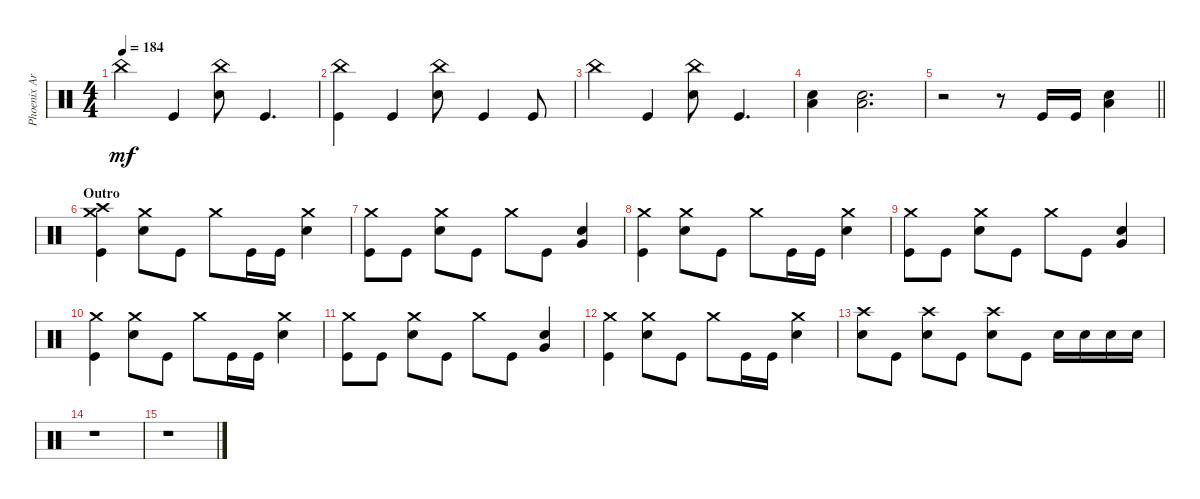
\track ("Phoenix Arn-Horn (Drums)" "Phoenix Ar") {instrument percussion}
\staff {score}
\articulation defaults
\ts (4 4)
\tempo 184
\clef neutral
\ks c "China (hit)".4{dy mf} "Kick (hit)".4
("Snare (hit) 2" "China (hit)").8 "Kick (hit)".4{d} |
("Kick (hit)" "China (hit)").4 "Kick (hit)".4 ("Snare (hit) 2" "China (hit)").8 "Kick (hit)".4 "Kick (hit)".8 |
"China (hit)".4 "Kick (hit)".4 ("Snare (hit) 2" "China (hit)").8 "Kick (hit)".4{d} |
("Snare (hit) 2" "Low Floor Tom (hit)").4 ("Snare (hit) 2" "Low Floor Tom (hit)").2{d} |
\barLineRight lightlight
r.2 r.8 "Kick (hit)".16 "Kick (hit)".16 ("Snare (hit) 2" "Low Floor Tom (hit)").4 |
\section ("" "Outro")
("Kick (hit)" "Crash medium (hit)" "Crash high (hit)").4 ("Snare (hit) 2" "Crash medium (hit)").8 "Kick (hit)".8 "Crash medium (hit)".8 "Kick (hit)".16 "Kick (hit)".16 ("Snare (hit) 2" "Crash medium (hit)").4 |
("Kick (hit)" "Crash medium (hit)").8 "Kick (hit)".8 ("Snare (hit) 2" "Crash medium (hit)").8 "Kick (hit)".8 "Crash medium (hit)".8 "Kick (hit)".8 ("Snare (hit) 2" "Very Low Tom (hit)").4 |
("Kick (hit)" "Crash medium (hit)").4 ("Snare (hit) 2" "Crash medium (hit)").8 "Kick (hit)".8 "Crash medium (hit)".8 "Kick (hit)".16 "Kick (hit)".16 ("Snare (hit) 2" "Crash medium (hit)").4 |
("Kick (hit)" "Crash medium (hit)").8 "Kick (hit)".8 ("Snare (hit) 2" "Crash medium (hit)").8 "Kick (hit)".8 "Crash medium (hit)".8 "Kick (hit)".8 ("Snare (hit) 2" "Very Low Tom (hit)").4 |
("Kick (hit)" "Crash medium (hit)").4 ("Snare (hit) 2" "Crash medium (hit)").8 "Kick (hit)".8 "Crash medium (hit)".8 "Kick (hit)".16 "Kick (hit)".16 ("Snare (hit) 2" "Crash medium (hit)").4 |
("Kick (hit)" "Crash medium (hit)").8 "Kick (hit)".8 ("Snare (hit) 2" "Crash medium (hit)").8 "Kick (hit)".8 "Crash medium (hit)".8 "Kick (hit)".8 ("Snare (hit) 2" "Very Low Tom (hit)").4 |
("Kick (hit)" "Crash medium (hit)").4 ("Snare (hit) 2" "Crash medium (hit)").8 "Kick (hit)".8 "Crash medium (hit)".8 "Kick (hit)".16 "Kick (hit)".16 ("Snare (hit) 2" "Crash medium (hit)").4 |
("Snare (hit) 2" "Crash high (hit)").8 "Kick (hit)".8 ("Snare (hit) 2" "Crash high (hit)").8 "Kick (hit)".8 ("Snare (hit) 2" "Crash high (hit)").8 "Kick (hit)".8 "Snare (hit) 2".16 "Snare (hit) 2".16 "Snare (hit) 2".16 "Snare (hit) 2".16 |
r.1 |
r.1
